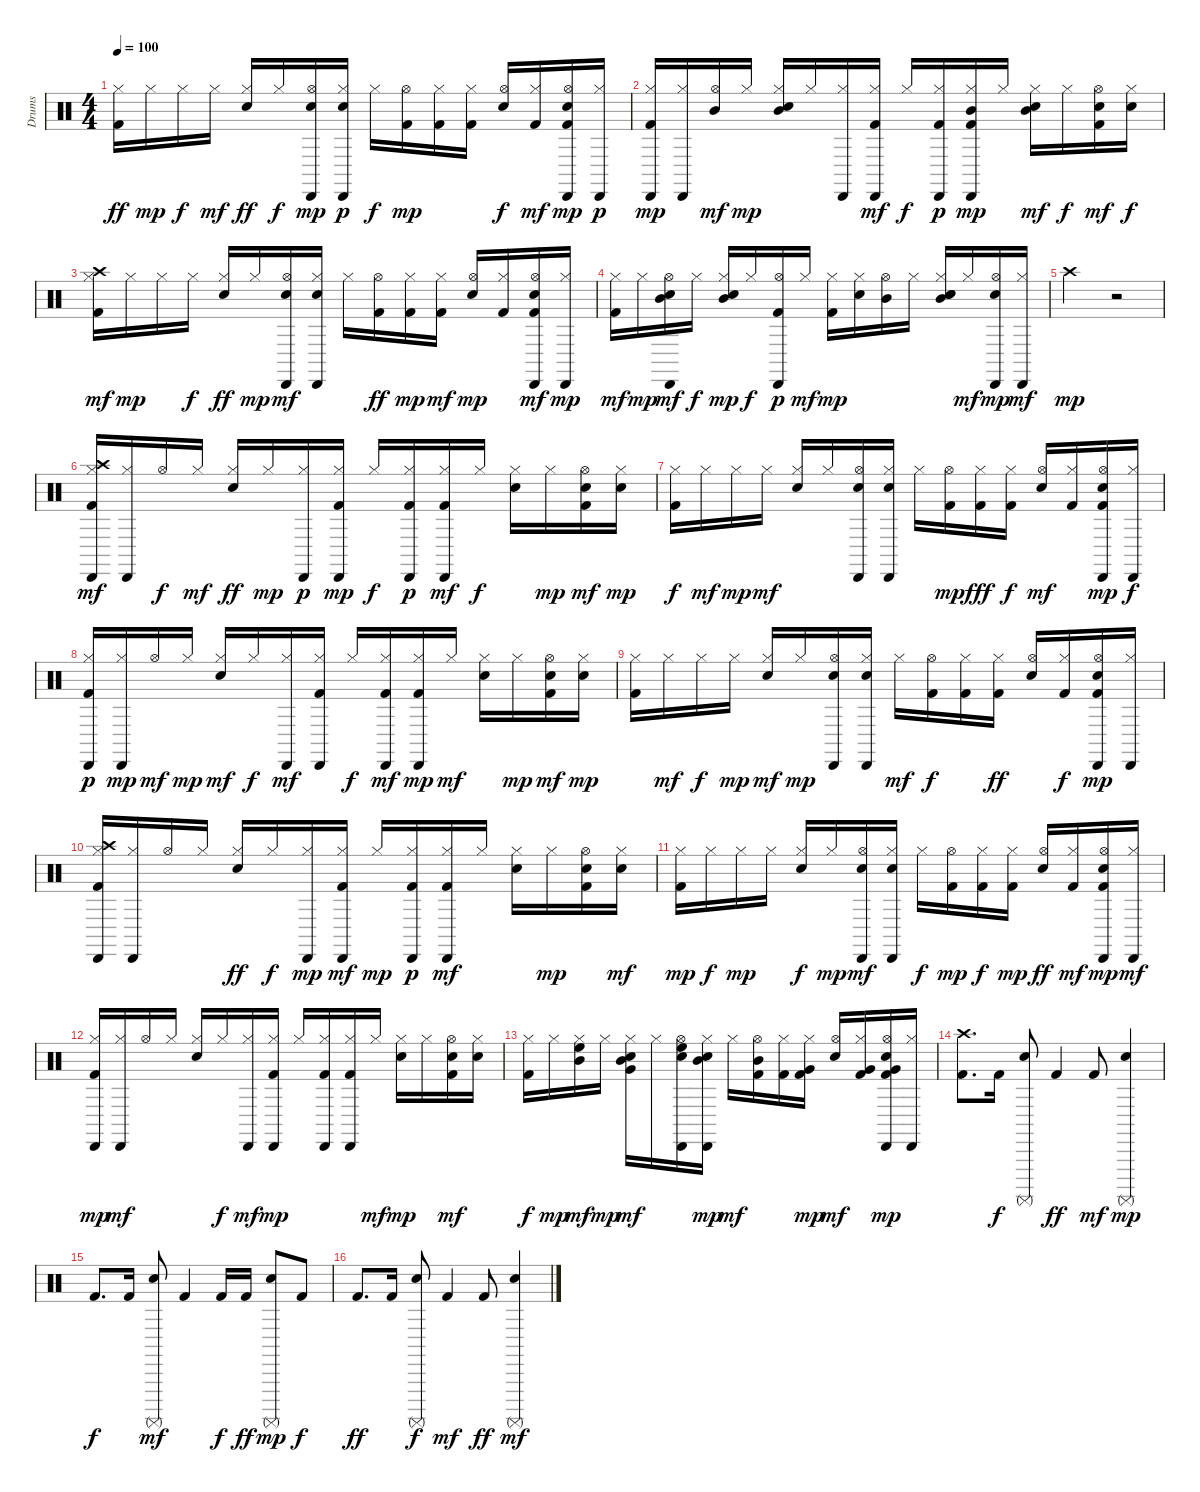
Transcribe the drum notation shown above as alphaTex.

\track ("Drums" "Drums") {instrument percussion}
\staff {score}
\articulation defaults
\ts (4 4)
\tempo 100
\clef neutral
\ks c
("Kick (hit) 2" "Hi-Hat (closed)").16{dy ff} "Hi-Hat (closed)".16{dy mp} "Hi-Hat (closed)".16{dy f} "Hi-Hat (closed)".16{dy mf} ("Snare (hit) 2" "Hi-Hat (closed)").16{dy ff} "Hi-Hat (closed)".16{dy f} ("Hand Clap (hit)" "Hi-Hat (open)" "Cabasa (hit)").16{dy mp} ("Hand Clap (hit)" "Hi-Hat (closed)" "Cabasa (hit)").16{dy p} "Hi-Hat (closed)".16{dy f} ("Kick (hit) 2" "Hi-Hat (open)").16{dy mp} ("Kick (hit) 2" "Hi-Hat (closed)").16 ("Kick (hit) 2" "Hi-Hat (closed)").16 ("Snare (hit) 2" "Hi-Hat (open)").16{dy f} ("Kick (hit) 2" "Hi-Hat (closed)").16{dy mf} ("Kick (hit) 2" "Hand Clap (hit)" "Hi-Hat (open)" "Cabasa (hit)").16{dy mp} ("Hi-Hat (closed)" "Cabasa (hit)").16{dy p} |
("Kick (hit) 2" "Hi-Hat (closed)" "Cabasa (hit)").16{dy mp} ("Hi-Hat (closed)" "Cabasa (hit)").16 ("Hi-Hat (open)" "Mid Tom (hit)").16{dy mf} "Hi-Hat (closed)".16{dy mp} ("Snare (hit) 2" "Hi-Hat (closed)" "Mid Tom (hit)").16 "Hi-Hat (closed)".16 ("Hi-Hat (closed)" "Cabasa (hit)").16 ("Kick (hit) 2" "Hi-Hat (closed)" "Cabasa (hit)").16{dy mf} "Hi-Hat (closed)".16{dy f} ("Kick (hit) 2" "Hi-Hat (closed)" "Cabasa (hit)").16{dy p} ("Kick (hit) 2" "Hi-Hat (closed)" "Mid Tom (hit)" "Cabasa (hit)").16{dy mp} "Hi-Hat (closed)".16 ("Snare (hit) 2" "Hi-Hat (closed)" "Mid Tom (hit)").16{dy mf} "Hi-Hat (closed)".16{dy f} ("Kick (hit) 2" "Hand Clap (hit)" "Hi-Hat (open)").16{dy mf} ("Hand Clap (hit)" "Hi-Hat (closed)").16{dy f} |
("Kick (hit) 2" "Hi-Hat (closed)" "Crash high (hit)").16{dy mf} "Hi-Hat (closed)".16{dy mp} "Hi-Hat (closed)".16 "Hi-Hat (closed)".16{dy f} ("Snare (hit) 2" "Hi-Hat (closed)").16{dy ff} "Hi-Hat (closed)".16{dy mp} ("Hand Clap (hit)" "Hi-Hat (open)" "Cabasa (hit)").16{dy mf} ("Hand Clap (hit)" "Hi-Hat (closed)" "Cabasa (hit)").16 "Hi-Hat (closed)".16 ("Kick (hit) 2" "Hi-Hat (open)").16{dy ff} ("Kick (hit) 2" "Hi-Hat (closed)").16{dy mp} ("Kick (hit) 2" "Hi-Hat (closed)").16{dy mf} ("Snare (hit) 2" "Hi-Hat (open)").16{dy mp} ("Kick (hit) 2" "Hi-Hat (closed)").16 ("Kick (hit) 2" "Hand Clap (hit)" "Hi-Hat (open)" "Cabasa (hit)").16{dy mf} ("Hi-Hat (closed)" "Cabasa (hit)").16{dy mp} |
("Kick (hit) 2" "Hi-Hat (closed)").16{dy mf} "Hi-Hat (closed)".16{dy mp} ("Hand Clap (hit)" "Hi-Hat (open)" "Mid Tom (hit)" "Cabasa (hit)").16{dy mf} "Hi-Hat (closed)".16{dy f} ("Snare (hit) 2" "Hi-Hat (closed)" "Mid Tom (hit)").16{dy mp} "Hi-Hat (closed)".16{dy f} ("Kick (hit) 2" "Hi-Hat (open)" "Cabasa (hit)").16{dy p} "Hi-Hat (closed)".16{dy mf} ("Kick (hit) 2" "Hi-Hat (closed)").16{dy mp} ("Hand Clap (hit)" "Hi-Hat (closed)").16 ("Hi-Hat (open)" "Mid Tom (hit)").16 "Hi-Hat (closed)".16 ("Snare (hit) 2" "Hand Clap (hit)" "Hi-Hat (closed)" "Mid Tom (hit)").16 "Hi-Hat (closed)".16{dy mf} ("Hand Clap (hit)" "Hi-Hat (open)" "Cabasa (hit)").16{dy mp} ("Hi-Hat (closed)" "Cabasa (hit)").16{dy mf} |
"Crash high (hit)".2{dy mp} r.2 |
("Kick (hit) 2" "Hi-Hat (closed)" "Crash high (hit)" "Cabasa (hit)").16{dy mf} ("Hi-Hat (closed)" "Cabasa (hit)").16 "Hi-Hat (open)".16{dy f} "Hi-Hat (closed)".16{dy mf} ("Snare (hit) 2" "Hi-Hat (closed)").16{dy ff} "Hi-Hat (closed)".16{dy mp} ("Hi-Hat (closed)" "Cabasa (hit)").16{dy p} ("Kick (hit) 2" "Hi-Hat (closed)" "Cabasa (hit)").16{dy mp} "Hi-Hat (closed)".16{dy f} ("Kick (hit) 2" "Hi-Hat (closed)" "Cabasa (hit)").16{dy p} ("Kick (hit) 2" "Hi-Hat (closed)" "Cabasa (hit)").16{dy mf} "Hi-Hat (closed)".16{dy f} ("Snare (hit) 2" "Hi-Hat (closed)").16 "Hi-Hat (closed)".16{dy mp} ("Kick (hit) 2" "Hand Clap (hit)" "Hi-Hat (open)").16{dy mf} ("Hand Clap (hit)" "Hi-Hat (closed)").16{dy mp} |
("Kick (hit) 2" "Hi-Hat (closed)").16{dy f} "Hi-Hat (closed)".16{dy mf} "Hi-Hat (closed)".16{dy mp} "Hi-Hat (closed)".16{dy mf} ("Snare (hit) 2" "Hi-Hat (closed)").16 "Hi-Hat (closed)".16 ("Hand Clap (hit)" "Hi-Hat (open)" "Cabasa (hit)").16 ("Hand Clap (hit)" "Hi-Hat (closed)" "Cabasa (hit)").16 "Hi-Hat (closed)".16 ("Kick (hit) 2" "Hi-Hat (open)").16{dy mp} ("Kick (hit) 2" "Hi-Hat (closed)").16{dy fff} ("Kick (hit) 2" "Hi-Hat (closed)").16{dy f} ("Snare (hit) 2" "Hi-Hat (open)").16{dy mf} ("Kick (hit) 2" "Hi-Hat (closed)").16 ("Kick (hit) 2" "Hand Clap (hit)" "Hi-Hat (open)" "Cabasa (hit)").16{dy mp} ("Hi-Hat (closed)" "Cabasa (hit)").16{dy f} |
("Kick (hit) 2" "Hi-Hat (closed)" "Cabasa (hit)").16{dy p} ("Hi-Hat (closed)" "Cabasa (hit)").16{dy mp} "Hi-Hat (open)".16{dy mf} "Hi-Hat (closed)".16{dy mp} ("Snare (hit) 2" "Hi-Hat (closed)").16{dy mf} "Hi-Hat (closed)".16{dy f} ("Hi-Hat (closed)" "Cabasa (hit)").16{dy mf} ("Kick (hit) 2" "Hi-Hat (closed)" "Cabasa (hit)").16 "Hi-Hat (closed)".16{dy f} ("Kick (hit) 2" "Hi-Hat (closed)" "Cabasa (hit)").16{dy mf} ("Kick (hit) 2" "Hi-Hat (closed)" "Cabasa (hit)").16{dy mp} "Hi-Hat (closed)".16{dy mf} ("Snare (hit) 2" "Hi-Hat (closed)").16 "Hi-Hat (closed)".16{dy mp} ("Kick (hit) 2" "Hand Clap (hit)" "Hi-Hat (open)").16{dy mf} ("Hand Clap (hit)" "Hi-Hat (closed)").16{dy mp} |
("Kick (hit) 2" "Hi-Hat (closed)").16 "Hi-Hat (closed)".16{dy mf} "Hi-Hat (closed)".16{dy f} "Hi-Hat (closed)".16{dy mp} ("Snare (hit) 2" "Hi-Hat (closed)").16{dy mf} "Hi-Hat (closed)".16{dy mp} ("Hand Clap (hit)" "Hi-Hat (open)" "Cabasa (hit)").16 ("Hand Clap (hit)" "Hi-Hat (closed)" "Cabasa (hit)").16 "Hi-Hat (closed)".16{dy mf} ("Kick (hit) 2" "Hi-Hat (open)").16{dy f} ("Kick (hit) 2" "Hi-Hat (closed)").16 ("Kick (hit) 2" "Hi-Hat (closed)").16{dy ff} ("Snare (hit) 2" "Hi-Hat (open)").16 ("Kick (hit) 2" "Hi-Hat (closed)").16{dy f} ("Kick (hit) 2" "Hand Clap (hit)" "Hi-Hat (open)" "Cabasa (hit)").16{dy mp} ("Hi-Hat (closed)" "Cabasa (hit)").16 |
("Kick (hit) 2" "Hi-Hat (closed)" "Crash high (hit)" "Cabasa (hit)").16 ("Hi-Hat (closed)" "Cabasa (hit)").16 "Hi-Hat (open)".16 "Hi-Hat (closed)".16 ("Snare (hit) 2" "Hi-Hat (closed)").16{dy ff} "Hi-Hat (closed)".16{dy f} ("Hi-Hat (closed)" "Cabasa (hit)").16{dy mp} ("Kick (hit) 2" "Hi-Hat (closed)" "Cabasa (hit)").16{dy mf} "Hi-Hat (closed)".16{dy mp} ("Kick (hit) 2" "Hi-Hat (closed)" "Cabasa (hit)").16{dy p} ("Kick (hit) 2" "Hi-Hat (closed)" "Cabasa (hit)").16{dy mf} "Hi-Hat (closed)".16 ("Snare (hit) 2" "Hi-Hat (closed)").16 "Hi-Hat (closed)".16{dy mp} ("Kick (hit) 2" "Hand Clap (hit)" "Hi-Hat (open)").16 ("Hand Clap (hit)" "Hi-Hat (closed)").16{dy mf} |
("Kick (hit) 2" "Hi-Hat (closed)").16{dy mp} "Hi-Hat (closed)".16{dy f} "Hi-Hat (closed)".16{dy mp} "Hi-Hat (closed)".16 ("Snare (hit) 2" "Hi-Hat (closed)").16{dy f} "Hi-Hat (closed)".16{dy mp} ("Hand Clap (hit)" "Hi-Hat (open)" "Cabasa (hit)").16{dy mf} ("Hand Clap (hit)" "Hi-Hat (closed)" "Cabasa (hit)").16 "Hi-Hat (closed)".16{dy f} ("Kick (hit) 2" "Hi-Hat (open)").16{dy mp} ("Kick (hit) 2" "Hi-Hat (closed)").16{dy f} ("Kick (hit) 2" "Hi-Hat (closed)").16{dy mp} ("Snare (hit) 2" "Hi-Hat (open)").16{dy ff} ("Kick (hit) 2" "Hi-Hat (closed)").16{dy mf} ("Kick (hit) 2" "Hand Clap (hit)" "Hi-Hat (open)" "Cabasa (hit)").16{dy mp} ("Hi-Hat (closed)" "Cabasa (hit)").16{dy mf} |
("Kick (hit) 2" "Hi-Hat (closed)" "Cabasa (hit)").16{dy mp} ("Hi-Hat (closed)" "Cabasa (hit)").16{dy mf} "Hi-Hat (open)".16 "Hi-Hat (closed)".16 ("Snare (hit) 2" "Hi-Hat (closed)").16 "Hi-Hat (closed)".16{dy f} ("Hi-Hat (closed)" "Cabasa (hit)").16{dy mf} ("Kick (hit) 2" "Hi-Hat (closed)" "Cabasa (hit)").16{dy mp} "Hi-Hat (closed)".16 ("Kick (hit) 2" "Hi-Hat (closed)" "Cabasa (hit)").16 ("Kick (hit) 2" "Hi-Hat (closed)" "Cabasa (hit)").16 "Hi-Hat (closed)".16{dy mf} ("Snare (hit) 2" "Hi-Hat (closed)").16{dy mp} "Hi-Hat (closed)".16 ("Kick (hit) 2" "Hand Clap (hit)" "Hi-Hat (open)").16{dy mf} ("Hand Clap (hit)" "Hi-Hat (closed)").16 |
("Kick (hit) 2" "Hi-Hat (closed)").16{dy f} "Hi-Hat (closed)".16{dy mp} ("Hi-Hat (closed)" "Mid Tom (hit)" "High Floor Tom (hit)").16{dy mf} "Hi-Hat (closed)".16{dy mp} ("Snare (hit) 2" "Hi-Hat (closed)" "Very Low Tom (hit)" "Mid Tom (hit)").16{dy mf} "Hi-Hat (closed)".16 ("Hand Clap (hit)" "Hi-Hat (open)" "High Floor Tom (hit)" "Cabasa (hit)").16 ("Hand Clap (hit)" "Hi-Hat (closed)" "Mid Tom (hit)" "Cabasa (hit)").16{dy mp} "Hi-Hat (closed)".16{dy mf} ("Kick (hit) 2" "Hi-Hat (open)" "Mid Tom (hit)").16 ("Kick (hit) 2" "Hi-Hat (closed)").16 ("Kick (hit) 2" "Hi-Hat (closed)" "Very Low Tom (hit)").16{dy mp} ("Snare (hit) 2" "Hi-Hat (open)").16{dy mf} ("Kick (hit) 2" "Hi-Hat (closed)" "Very Low Tom (hit)").16 ("Kick (hit) 2" "Hand Clap (hit)" "Very Low Tom (hit)" "Hi-Hat (open)" "Cabasa (hit)").16{dy mp} ("Hi-Hat (closed)" "Cabasa (hit)").16 |
("Kick (hit) 2" "Crash high (hit)").8{d} "Kick (hit) 2".16{dy f} ("Snare (hit) 2" "Surdo (mute)").8 "Kick (hit) 2".4{dy ff} "Kick (hit) 2".8{dy mf} ("Snare (hit) 2" "Surdo (mute)").4{dy mp} |
"Kick (hit) 2".8{d dy f} "Kick (hit) 2".16 ("Snare (hit) 2" "Surdo (mute)").8{dy mf} "Kick (hit) 2".4 "Kick (hit) 2".16{dy f} "Kick (hit) 2".16{dy ff} ("Snare (hit) 2" "Surdo (mute)").8{dy mp} "Kick (hit) 2".8{dy f} |
"Kick (hit) 2".8{d dy ff} "Kick (hit) 2".16 ("Snare (hit) 2" "Surdo (mute)").8{dy f} "Kick (hit) 2".4{dy mf} "Kick (hit) 2".8{dy ff} ("Snare (hit) 2" "Surdo (mute)").4{dy mf}
